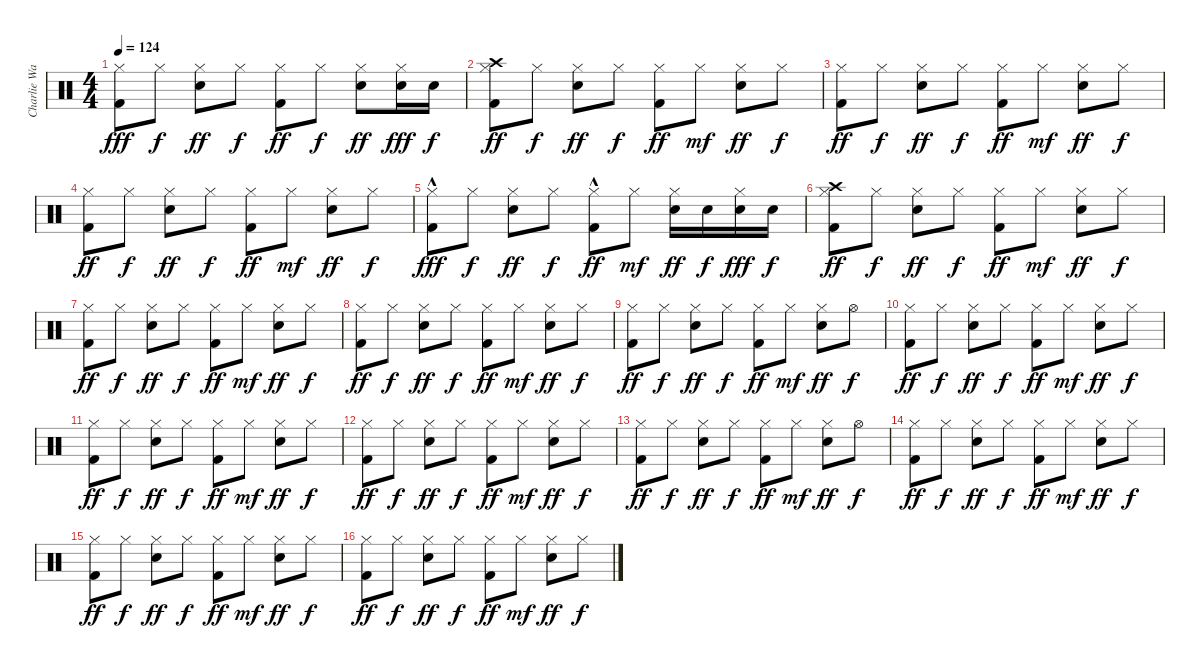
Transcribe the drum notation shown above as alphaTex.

\track ("Charlie Watts" "Charlie Wa") {instrument percussion}
\staff {score}
\articulation defaults
\ts (4 4)
\tempo 124
\clef neutral
\ks c
("Kick (hit) 2" "Hi-Hat (closed)").8{dy fff} "Hi-Hat (closed)".8{dy f} ("Snare (hit) 2" "Hi-Hat (closed)").8{dy ff} "Hi-Hat (closed)".8{dy f} ("Kick (hit) 2" "Hi-Hat (closed)").8{dy ff} "Hi-Hat (closed)".8{dy f} ("Snare (hit) 2" "Hi-Hat (closed)").8{dy ff} ("Hi-Hat (closed)" "Snare (hit) 2").16{dy fff} "Snare (hit) 2".16{dy f} |
("Kick (hit) 2" "Hi-Hat (closed)" "Crash high (hit)").8{dy ff} "Hi-Hat (closed)".8{dy f} ("Snare (hit) 2" "Hi-Hat (closed)").8{dy ff} "Hi-Hat (closed)".8{dy f} ("Kick (hit) 2" "Hi-Hat (closed)").8{dy ff} "Hi-Hat (closed)".8{dy mf} ("Snare (hit) 2" "Hi-Hat (closed)").8{dy ff} "Hi-Hat (closed)".8{dy f} |
("Kick (hit) 2" "Hi-Hat (closed)").8{dy ff} "Hi-Hat (closed)".8{dy f} ("Snare (hit) 2" "Hi-Hat (closed)").8{dy ff} "Hi-Hat (closed)".8{dy f} ("Kick (hit) 2" "Hi-Hat (closed)").8{dy ff} "Hi-Hat (closed)".8{dy mf} ("Snare (hit) 2" "Hi-Hat (closed)").8{dy ff} "Hi-Hat (closed)".8{dy f} |
("Kick (hit) 2" "Hi-Hat (closed)").8{dy ff} "Hi-Hat (closed)".8{dy f} ("Snare (hit) 2" "Hi-Hat (closed)").8{dy ff} "Hi-Hat (closed)".8{dy f} ("Kick (hit) 2" "Hi-Hat (closed)").8{dy ff} "Hi-Hat (closed)".8{dy mf} ("Snare (hit) 2" "Hi-Hat (closed)").8{dy ff} "Hi-Hat (closed)".8{dy f} |
("Kick (hit) 2"{hac} "Hi-Hat (closed)").8{dy fff} "Hi-Hat (closed)".8{dy f} ("Snare (hit) 2" "Hi-Hat (closed)").8{dy ff} "Hi-Hat (closed)".8{dy f} ("Kick (hit) 2"{hac} "Hi-Hat (closed)").8{dy ff} "Hi-Hat (closed)".8{dy mf} ("Hi-Hat (closed)" "Snare (hit) 2").16{dy ff} "Snare (hit) 2".16{dy f} ("Hi-Hat (closed)" "Snare (hit) 2").16{dy fff} "Snare (hit) 2".16{dy f} |
("Kick (hit) 2" "Hi-Hat (closed)" "Crash high (hit)").8{dy ff} "Hi-Hat (closed)".8{dy f} ("Snare (hit) 2" "Hi-Hat (closed)").8{dy ff} "Hi-Hat (closed)".8{dy f} ("Kick (hit) 2" "Hi-Hat (closed)").8{dy ff} "Hi-Hat (closed)".8{dy mf} ("Snare (hit) 2" "Hi-Hat (closed)").8{dy ff} "Hi-Hat (closed)".8{dy f} |
("Kick (hit) 2" "Hi-Hat (closed)").8{dy ff} "Hi-Hat (closed)".8{dy f} ("Snare (hit) 2" "Hi-Hat (closed)").8{dy ff} "Hi-Hat (closed)".8{dy f} ("Kick (hit) 2" "Hi-Hat (closed)").8{dy ff} "Hi-Hat (closed)".8{dy mf} ("Snare (hit) 2" "Hi-Hat (closed)").8{dy ff} "Hi-Hat (closed)".8{dy f} |
("Kick (hit) 2" "Hi-Hat (closed)").8{dy ff} "Hi-Hat (closed)".8{dy f} ("Snare (hit) 2" "Hi-Hat (closed)").8{dy ff} "Hi-Hat (closed)".8{dy f} ("Kick (hit) 2" "Hi-Hat (closed)").8{dy ff} "Hi-Hat (closed)".8{dy mf} ("Snare (hit) 2" "Hi-Hat (closed)").8{dy ff} "Hi-Hat (closed)".8{dy f} |
("Kick (hit) 2" "Hi-Hat (closed)").8{dy ff} "Hi-Hat (closed)".8{dy f} ("Snare (hit) 2" "Hi-Hat (closed)").8{dy ff} "Hi-Hat (closed)".8{dy f} ("Kick (hit) 2" "Hi-Hat (closed)").8{dy ff} "Hi-Hat (closed)".8{dy mf} ("Snare (hit) 2" "Hi-Hat (closed)").8{dy ff} "Hi-Hat (open)".8{dy f} |
("Kick (hit) 2" "Hi-Hat (closed)").8{dy ff} "Hi-Hat (closed)".8{dy f} ("Snare (hit) 2" "Hi-Hat (closed)").8{dy ff} "Hi-Hat (closed)".8{dy f} ("Kick (hit) 2" "Hi-Hat (closed)").8{dy ff} "Hi-Hat (closed)".8{dy mf} ("Snare (hit) 2" "Hi-Hat (closed)").8{dy ff} "Hi-Hat (closed)".8{dy f} |
("Kick (hit) 2" "Hi-Hat (closed)").8{dy ff} "Hi-Hat (closed)".8{dy f} ("Snare (hit) 2" "Hi-Hat (closed)").8{dy ff} "Hi-Hat (closed)".8{dy f} ("Kick (hit) 2" "Hi-Hat (closed)").8{dy ff} "Hi-Hat (closed)".8{dy mf} ("Snare (hit) 2" "Hi-Hat (closed)").8{dy ff} "Hi-Hat (closed)".8{dy f} |
("Kick (hit) 2" "Hi-Hat (closed)").8{dy ff} "Hi-Hat (closed)".8{dy f} ("Snare (hit) 2" "Hi-Hat (closed)").8{dy ff} "Hi-Hat (closed)".8{dy f} ("Kick (hit) 2" "Hi-Hat (closed)").8{dy ff} "Hi-Hat (closed)".8{dy mf} ("Snare (hit) 2" "Hi-Hat (closed)").8{dy ff} "Hi-Hat (closed)".8{dy f} |
("Kick (hit) 2" "Hi-Hat (closed)").8{dy ff} "Hi-Hat (closed)".8{dy f} ("Snare (hit) 2" "Hi-Hat (closed)").8{dy ff} "Hi-Hat (closed)".8{dy f} ("Kick (hit) 2" "Hi-Hat (closed)").8{dy ff} "Hi-Hat (closed)".8{dy mf} ("Snare (hit) 2" "Hi-Hat (closed)").8{dy ff} "Hi-Hat (open)".8{dy f} |
("Kick (hit) 2" "Hi-Hat (closed)").8{dy ff} "Hi-Hat (closed)".8{dy f} ("Snare (hit) 2" "Hi-Hat (closed)").8{dy ff} "Hi-Hat (closed)".8{dy f} ("Kick (hit) 2" "Hi-Hat (closed)").8{dy ff} "Hi-Hat (closed)".8{dy mf} ("Snare (hit) 2" "Hi-Hat (closed)").8{dy ff} "Hi-Hat (closed)".8{dy f} |
("Kick (hit) 2" "Hi-Hat (closed)").8{dy ff} "Hi-Hat (closed)".8{dy f} ("Snare (hit) 2" "Hi-Hat (closed)").8{dy ff} "Hi-Hat (closed)".8{dy f} ("Kick (hit) 2" "Hi-Hat (closed)").8{dy ff} "Hi-Hat (closed)".8{dy mf} ("Snare (hit) 2" "Hi-Hat (closed)").8{dy ff} "Hi-Hat (closed)".8{dy f} |
("Kick (hit) 2" "Hi-Hat (closed)").8{dy ff} "Hi-Hat (closed)".8{dy f} ("Snare (hit) 2" "Hi-Hat (closed)").8{dy ff} "Hi-Hat (closed)".8{dy f} ("Kick (hit) 2" "Hi-Hat (closed)").8{dy ff} "Hi-Hat (closed)".8{dy mf} ("Snare (hit) 2" "Hi-Hat (closed)").8{dy ff} "Hi-Hat (closed)".8{dy f}
